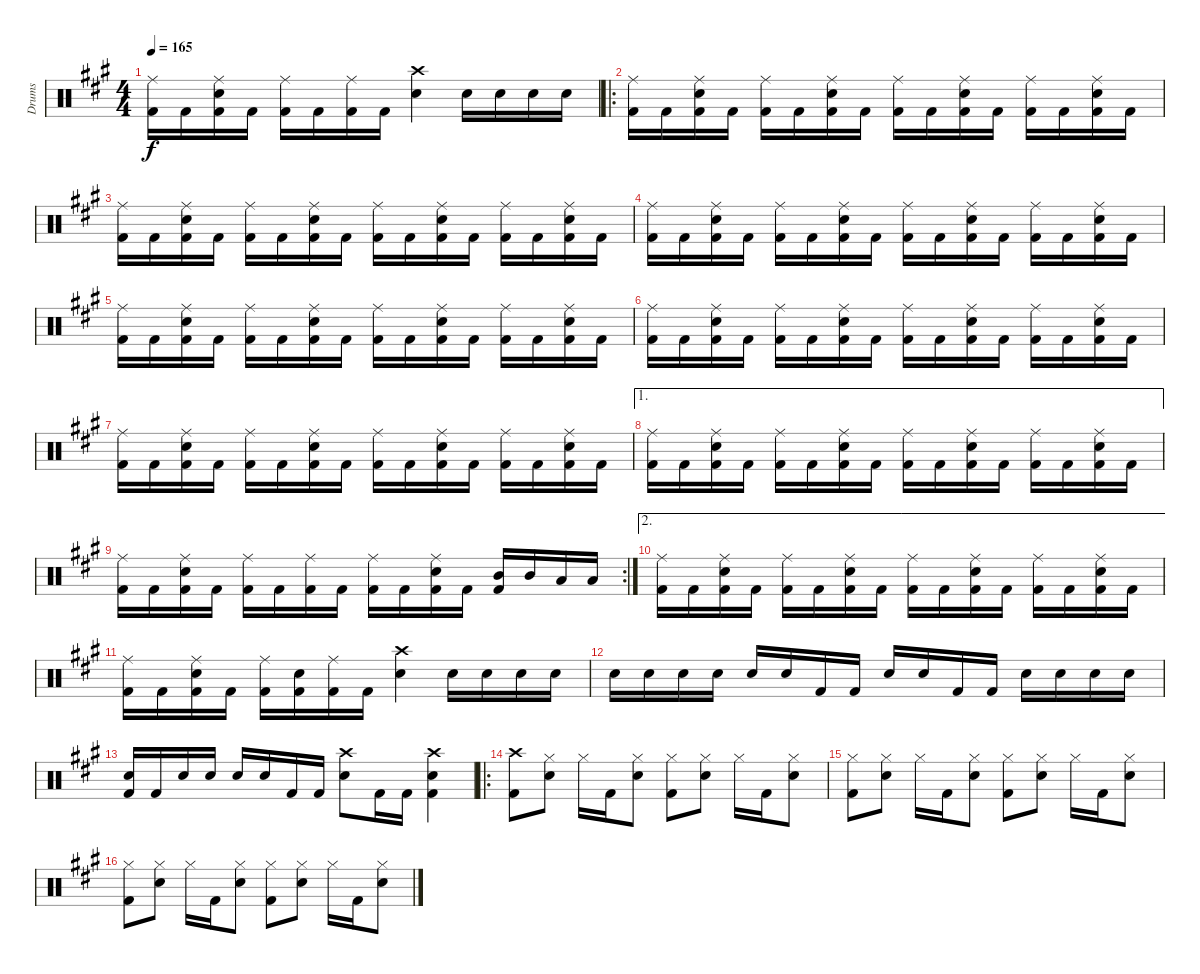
\track ("Drums" "Drums") {instrument percussion}
\staff {score}
\articulation defaults
\ts (4 4)
\tempo 165
\clef neutral
\ks a
("Ride (middle)" "Kick (hit) 2").16{dy f} "Kick (hit) 2".16 ("Ride (middle)" "Snare (hit) 2" "Kick (hit) 2").16 "Kick (hit) 2".16 ("Ride (middle)" "Kick (hit) 2").16 "Kick (hit) 2".16 ("Ride (middle)" "Kick (hit) 2").16 "Kick (hit) 2".16 ("Crash high (hit)" "Snare (hit) 2").4 "Snare (hit) 2".16 "Snare (hit) 2".16 "Snare (hit) 2".16 "Snare (hit) 2".16 |
\ro
("Ride (middle)" "Kick (hit) 2").16 "Kick (hit) 2".16 ("Ride (middle)" "Snare (hit) 2" "Kick (hit) 2").16 "Kick (hit) 2".16 ("Ride (middle)" "Kick (hit) 2").16 "Kick (hit) 2".16 ("Ride (middle)" "Snare (hit) 2" "Kick (hit) 2").16 "Kick (hit) 2".16 ("Ride (middle)" "Kick (hit) 2").16 "Kick (hit) 2".16 ("Ride (middle)" "Snare (hit) 2" "Kick (hit) 2").16 "Kick (hit) 2".16 ("Ride (middle)" "Kick (hit) 2").16 "Kick (hit) 2".16 ("Ride (middle)" "Snare (hit) 2" "Kick (hit) 2").16 "Kick (hit) 2".16 |
("Ride (middle)" "Kick (hit) 2").16 "Kick (hit) 2".16 ("Ride (middle)" "Snare (hit) 2" "Kick (hit) 2").16 "Kick (hit) 2".16 ("Ride (middle)" "Kick (hit) 2").16 "Kick (hit) 2".16 ("Ride (middle)" "Snare (hit) 2" "Kick (hit) 2").16 "Kick (hit) 2".16 ("Ride (middle)" "Kick (hit) 2").16 "Kick (hit) 2".16 ("Ride (middle)" "Snare (hit) 2" "Kick (hit) 2").16 "Kick (hit) 2".16 ("Ride (middle)" "Kick (hit) 2").16 "Kick (hit) 2".16 ("Ride (middle)" "Snare (hit) 2" "Kick (hit) 2").16 "Kick (hit) 2".16 |
("Ride (middle)" "Kick (hit) 2").16 "Kick (hit) 2".16 ("Ride (middle)" "Snare (hit) 2" "Kick (hit) 2").16 "Kick (hit) 2".16 ("Ride (middle)" "Kick (hit) 2").16 "Kick (hit) 2".16 ("Ride (middle)" "Snare (hit) 2" "Kick (hit) 2").16 "Kick (hit) 2".16 ("Ride (middle)" "Kick (hit) 2").16 "Kick (hit) 2".16 ("Ride (middle)" "Snare (hit) 2" "Kick (hit) 2").16 "Kick (hit) 2".16 ("Ride (middle)" "Kick (hit) 2").16 "Kick (hit) 2".16 ("Ride (middle)" "Snare (hit) 2" "Kick (hit) 2").16 "Kick (hit) 2".16 |
("Ride (middle)" "Kick (hit) 2").16 "Kick (hit) 2".16 ("Ride (middle)" "Snare (hit) 2" "Kick (hit) 2").16 "Kick (hit) 2".16 ("Ride (middle)" "Kick (hit) 2").16 "Kick (hit) 2".16 ("Ride (middle)" "Snare (hit) 2" "Kick (hit) 2").16 "Kick (hit) 2".16 ("Ride (middle)" "Kick (hit) 2").16 "Kick (hit) 2".16 ("Ride (middle)" "Snare (hit) 2" "Kick (hit) 2").16 "Kick (hit) 2".16 ("Ride (middle)" "Kick (hit) 2").16 "Kick (hit) 2".16 ("Ride (middle)" "Snare (hit) 2" "Kick (hit) 2").16 "Kick (hit) 2".16 |
("Ride (middle)" "Kick (hit) 2").16 "Kick (hit) 2".16 ("Ride (middle)" "Snare (hit) 2" "Kick (hit) 2").16 "Kick (hit) 2".16 ("Ride (middle)" "Kick (hit) 2").16 "Kick (hit) 2".16 ("Ride (middle)" "Snare (hit) 2" "Kick (hit) 2").16 "Kick (hit) 2".16 ("Ride (middle)" "Kick (hit) 2").16 "Kick (hit) 2".16 ("Ride (middle)" "Snare (hit) 2" "Kick (hit) 2").16 "Kick (hit) 2".16 ("Ride (middle)" "Kick (hit) 2").16 "Kick (hit) 2".16 ("Ride (middle)" "Snare (hit) 2" "Kick (hit) 2").16 "Kick (hit) 2".16 |
("Ride (middle)" "Kick (hit) 2").16 "Kick (hit) 2".16 ("Ride (middle)" "Snare (hit) 2" "Kick (hit) 2").16 "Kick (hit) 2".16 ("Ride (middle)" "Kick (hit) 2").16 "Kick (hit) 2".16 ("Ride (middle)" "Snare (hit) 2" "Kick (hit) 2").16 "Kick (hit) 2".16 ("Ride (middle)" "Kick (hit) 2").16 "Kick (hit) 2".16 ("Ride (middle)" "Snare (hit) 2" "Kick (hit) 2").16 "Kick (hit) 2".16 ("Ride (middle)" "Kick (hit) 2").16 "Kick (hit) 2".16 ("Ride (middle)" "Snare (hit) 2" "Kick (hit) 2").16 "Kick (hit) 2".16 |
\ae 1
("Ride (middle)" "Kick (hit) 2").16 "Kick (hit) 2".16 ("Ride (middle)" "Snare (hit) 2" "Kick (hit) 2").16 "Kick (hit) 2".16 ("Ride (middle)" "Kick (hit) 2").16 "Kick (hit) 2".16 ("Ride (middle)" "Snare (hit) 2" "Kick (hit) 2").16 "Kick (hit) 2".16 ("Ride (middle)" "Kick (hit) 2").16 "Kick (hit) 2".16 ("Ride (middle)" "Snare (hit) 2" "Kick (hit) 2").16 "Kick (hit) 2".16 ("Ride (middle)" "Kick (hit) 2").16 "Kick (hit) 2".16 ("Ride (middle)" "Snare (hit) 2" "Kick (hit) 2").16 "Kick (hit) 2".16 |
\rc 2
("Ride (middle)" "Kick (hit) 2").16 "Kick (hit) 2".16 ("Ride (middle)" "Snare (hit) 2" "Kick (hit) 2").16 "Kick (hit) 2".16 ("Ride (middle)" "Kick (hit) 2").16 "Kick (hit) 2".16 ("Ride (middle)" "Kick (hit) 2").16 "Kick (hit) 2".16 ("Ride (middle)" "Kick (hit) 2").16 "Kick (hit) 2".16 ("Ride (middle)" "Snare (hit) 2" "Kick (hit) 2").16 "Kick (hit) 2".16 ("Mid Tom (hit)" "Kick (hit) 2").16 "Mid Tom (hit)".16 "Low Tom (hit)".16 "Low Tom (hit)".16 |
\ae 2
("Ride (middle)" "Kick (hit) 2").16 "Kick (hit) 2".16 ("Ride (middle)" "Snare (hit) 2" "Kick (hit) 2").16 "Kick (hit) 2".16 ("Ride (middle)" "Kick (hit) 2").16 "Kick (hit) 2".16 ("Ride (middle)" "Snare (hit) 2" "Kick (hit) 2").16 "Kick (hit) 2".16 ("Ride (middle)" "Kick (hit) 2").16 "Kick (hit) 2".16 ("Ride (middle)" "Snare (hit) 2" "Kick (hit) 2").16 "Kick (hit) 2".16 ("Ride (middle)" "Kick (hit) 2").16 "Kick (hit) 2".16 ("Ride (middle)" "Snare (hit) 2" "Kick (hit) 2").16 "Kick (hit) 2".16 |
("Ride (middle)" "Kick (hit) 2").16 "Kick (hit) 2".16 ("Ride (middle)" "Snare (hit) 2" "Kick (hit) 2").16 "Kick (hit) 2".16 ("Ride (middle)" "Kick (hit) 2").16 ("Snare (hit) 2" "Kick (hit) 2").16 ("Ride (middle)" "Kick (hit) 2").16 "Kick (hit) 2".16 ("Crash high (hit)" "Snare (hit) 2").4 "Snare (hit) 2".16 "Snare (hit) 2".16 "Snare (hit) 2".16 "Snare (hit) 2".16 |
"Snare (hit) 2".16 "Snare (hit) 2".16 "Snare (hit) 2".16 "Snare (hit) 2".16 "Snare (hit) 2".16 "Snare (hit) 2".16 "Kick (hit) 2".16 "Kick (hit) 2".16 "Snare (hit) 2".16 "Snare (hit) 2".16 "Kick (hit) 2".16 "Kick (hit) 2".16 "Snare (hit) 2".16 "Snare (hit) 2".16 "Snare (hit) 2".16 "Snare (hit) 2".16 |
("Snare (hit) 2" "Kick (hit) 2").16 "Kick (hit) 2".16 "Snare (hit) 2".16 "Snare (hit) 2".16 "Snare (hit) 2".16 "Snare (hit) 2".16 "Kick (hit) 2".16 "Kick (hit) 2".16 ("Crash high (hit)" "Snare (hit) 2").8 "Kick (hit) 2".16 "Kick (hit) 2".16 ("Crash high (hit)" "Snare (hit) 2" "Kick (hit) 2").4 |
\ro
("Crash high (hit)" "Kick (hit) 2").8 ("Hi-Hat (closed)" "Snare (hit) 2").8 "Hi-Hat (closed)".16 "Kick (hit) 2".16 ("Hi-Hat (closed)" "Snare (hit) 2").8 ("Hi-Hat (closed)" "Kick (hit) 2").8 ("Hi-Hat (closed)" "Snare (hit) 2").8 "Hi-Hat (closed)".16 "Kick (hit) 2".16 ("Hi-Hat (closed)" "Snare (hit) 2").8 |
("Hi-Hat (closed)" "Kick (hit) 2").8 ("Hi-Hat (closed)" "Snare (hit) 2").8 "Hi-Hat (closed)".16 "Kick (hit) 2".16 ("Hi-Hat (closed)" "Snare (hit) 2").8 ("Hi-Hat (closed)" "Kick (hit) 2").8 ("Hi-Hat (closed)" "Snare (hit) 2").8 "Hi-Hat (closed)".16 "Kick (hit) 2".16 ("Hi-Hat (closed)" "Snare (hit) 2").8 |
("Hi-Hat (closed)" "Kick (hit) 2").8 ("Hi-Hat (closed)" "Snare (hit) 2").8 "Hi-Hat (closed)".16 "Kick (hit) 2".16 ("Hi-Hat (closed)" "Snare (hit) 2").8 ("Hi-Hat (closed)" "Kick (hit) 2").8 ("Hi-Hat (closed)" "Snare (hit) 2").8 "Hi-Hat (closed)".16 "Kick (hit) 2".16 ("Hi-Hat (closed)" "Snare (hit) 2").8
